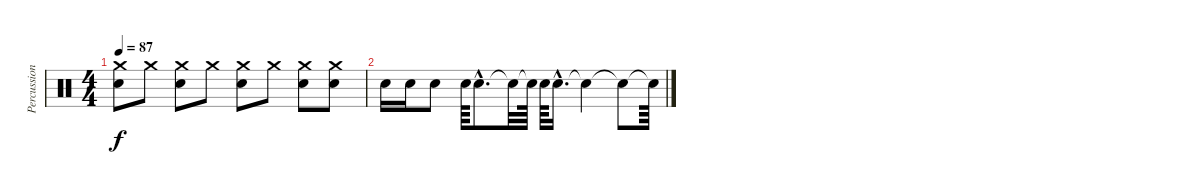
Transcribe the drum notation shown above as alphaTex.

\track ("Percussions" "Percussion") {instrument percussion}
\staff {score}
\articulation defaults
\ts (4 4)
\tempo 87
\clef neutral
\ks c
("Electric Snare (hit)" "Crash medium (hit)").8{dy f} "Crash medium (hit)".8 ("Electric Snare (hit)" "Crash medium (hit)").8 "Crash medium (hit)".8 ("Electric Snare (hit)" "Crash medium (hit)").8 "Crash medium (hit)".8 ("Electric Snare (hit)" "Crash medium (hit)").8 ("Electric Snare (hit)" "Crash medium (hit)").8 |
"Electric Snare (hit)".16 "Electric Snare (hit)".16 "Electric Snare (hit)".8 "Electric Snare (hit)".64 "Electric Snare (hit)"{hac}.8{d} "Snare (hit)"{t}.32 "Snare (hit)"{t}.64 "Electric Snare (hit)".64 "Electric Snare (hit)"{hac}.16{d} "Snare (hit)"{t}.4 "Snare (hit)"{t}.8 "Snare (hit)"{t}.64
